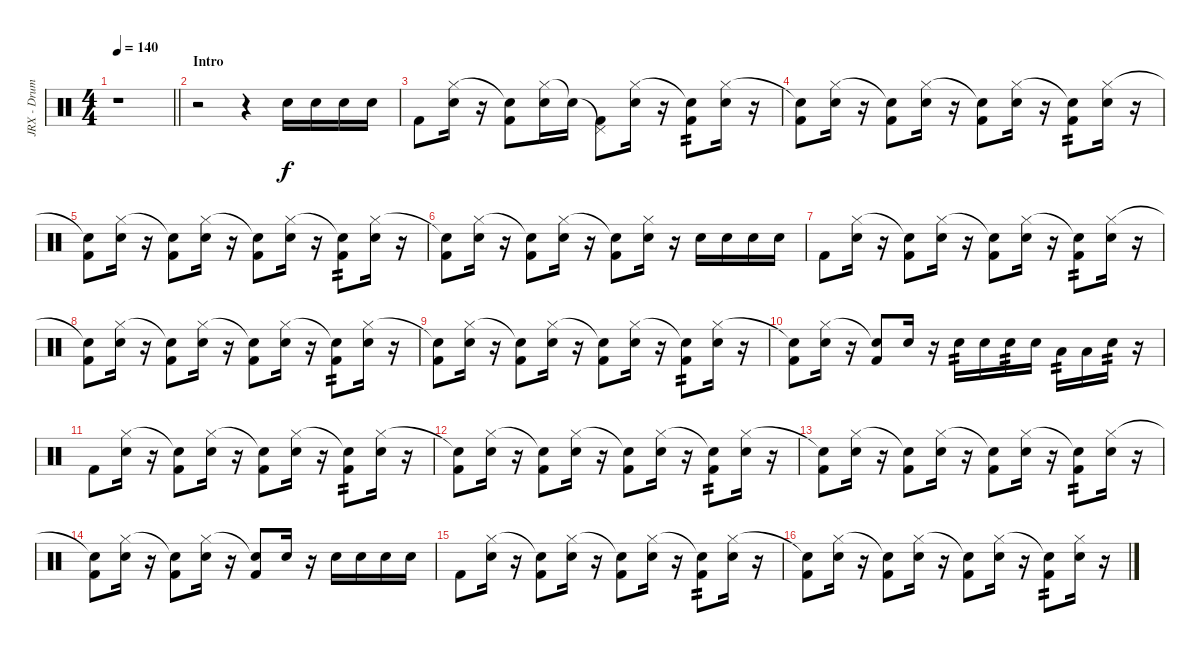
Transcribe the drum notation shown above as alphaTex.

\track ("JRX - Drum" "JRX - Drum") {instrument percussion}
\staff {score}
\articulation defaults
\ts (4 4)
\tempo 140
\clef neutral
\barLineRight lightlight
\ks c
r.1{dy f} |
\section ("" "Intro")
r.2 r.4 "Electric Snare (hit)".16 "Electric Snare (hit)".16 "Electric Snare (hit)".16 "Electric Snare (hit)".16 |
"Kick (hit) 2".8 ("Hi-Hat (closed)" "Electric Snare (hit)").16 r.16 ("Snare (hit)"{t} "Kick (hit) 2").8 ("Hi-Hat (closed)" "Electric Snare (hit)").16 "Snare (hit)"{t}.16 ("Pedal Hi-Hat (hit)"{t} "Kick (hit) 2").8 ("Hi-Hat (closed)" "Electric Snare (hit)").16 r.16 ("Snare (hit)"{t} "Kick (hit) 2").8{tp 2} ("Hi-Hat (closed)" "Electric Snare (hit)").16 r.16 |
("Snare (hit)"{t} "Kick (hit) 2").8 ("Hi-Hat (closed)" "Electric Snare (hit)").16 r.16 ("Snare (hit)"{t} "Kick (hit) 2").8 ("Hi-Hat (closed)" "Electric Snare (hit)").16 r.16 ("Snare (hit)"{t} "Kick (hit) 2").8 ("Hi-Hat (closed)" "Electric Snare (hit)").16 r.16 ("Snare (hit)"{t} "Kick (hit) 2").8{tp 2} ("Hi-Hat (closed)" "Electric Snare (hit)").16 r.16 |
("Snare (hit)"{t} "Kick (hit) 2").8 ("Hi-Hat (closed)" "Electric Snare (hit)").16 r.16 ("Snare (hit)"{t} "Kick (hit) 2").8 ("Hi-Hat (closed)" "Electric Snare (hit)").16 r.16 ("Snare (hit)"{t} "Kick (hit) 2").8 ("Hi-Hat (closed)" "Electric Snare (hit)").16 r.16 ("Snare (hit)"{t} "Kick (hit) 2").8{tp 2} ("Hi-Hat (closed)" "Electric Snare (hit)").16 r.16 |
("Snare (hit)"{t} "Kick (hit) 2").8 ("Hi-Hat (closed)" "Electric Snare (hit)").16 r.16 ("Snare (hit)"{t} "Kick (hit) 2").8 ("Hi-Hat (closed)" "Electric Snare (hit)").16 r.16 ("Snare (hit)"{t} "Kick (hit) 2").8 ("Hi-Hat (closed)" "Electric Snare (hit)").16 r.16 "Electric Snare (hit)".16 "Electric Snare (hit)".16 "Electric Snare (hit)".16 "Electric Snare (hit)".16 |
"Kick (hit) 2".8 ("Hi-Hat (closed)" "Electric Snare (hit)").16 r.16 ("Snare (hit)"{t} "Kick (hit) 2").8 ("Hi-Hat (closed)" "Electric Snare (hit)").16 r.16 ("Snare (hit)"{t} "Kick (hit) 2").8 ("Hi-Hat (closed)" "Electric Snare (hit)").16 r.16 ("Snare (hit)"{t} "Kick (hit) 2").8{tp 2} ("Hi-Hat (closed)" "Electric Snare (hit)").16 r.16 |
("Snare (hit)"{t} "Kick (hit) 2").8 ("Hi-Hat (closed)" "Electric Snare (hit)").16 r.16 ("Snare (hit)"{t} "Kick (hit) 2").8 ("Hi-Hat (closed)" "Electric Snare (hit)").16 r.16 ("Snare (hit)"{t} "Kick (hit) 2").8 ("Hi-Hat (closed)" "Electric Snare (hit)").16 r.16 ("Snare (hit)"{t} "Kick (hit) 2").8{tp 2} ("Hi-Hat (closed)" "Electric Snare (hit)").16 r.16 |
("Snare (hit)"{t} "Kick (hit) 2").8 ("Hi-Hat (closed)" "Electric Snare (hit)").16 r.16 ("Snare (hit)"{t} "Kick (hit) 2").8 ("Hi-Hat (closed)" "Electric Snare (hit)").16 r.16 ("Snare (hit)"{t} "Kick (hit) 2").8 ("Hi-Hat (closed)" "Electric Snare (hit)").16 r.16 ("Snare (hit)"{t} "Kick (hit) 2").8{tp 2} ("Hi-Hat (closed)" "Electric Snare (hit)").16 r.16 |
("Snare (hit)"{t} "Kick (hit) 2").8 ("Hi-Hat (closed)" "Electric Snare (hit)").16 r.16 ("Snare (hit)"{t} "Kick (hit) 2").8 "Electric Snare (hit)".16 r.16 "Electric Snare (hit)".16{tp 2} "Electric Snare (hit)".16 "Electric Snare (hit)".16{tp 2} "Electric Snare (hit)".16 "Low Floor Tom (hit)".16{tp 2} "Low Floor Tom (hit)".16 "Electric Snare (hit)".16{tp 2} r.16 |
"Kick (hit) 2".8 ("Hi-Hat (closed)" "Electric Snare (hit)").16 r.16 ("Snare (hit)"{t} "Kick (hit) 2").8 ("Hi-Hat (closed)" "Electric Snare (hit)").16 r.16 ("Snare (hit)"{t} "Kick (hit) 2").8 ("Hi-Hat (closed)" "Electric Snare (hit)").16 r.16 ("Snare (hit)"{t} "Kick (hit) 2").8{tp 2} ("Hi-Hat (closed)" "Electric Snare (hit)").16 r.16 |
("Snare (hit)"{t} "Kick (hit) 2").8 ("Hi-Hat (closed)" "Electric Snare (hit)").16 r.16 ("Snare (hit)"{t} "Kick (hit) 2").8 ("Hi-Hat (closed)" "Electric Snare (hit)").16 r.16 ("Snare (hit)"{t} "Kick (hit) 2").8 ("Hi-Hat (closed)" "Electric Snare (hit)").16 r.16 ("Snare (hit)"{t} "Kick (hit) 2").8{tp 2} ("Hi-Hat (closed)" "Electric Snare (hit)").16 r.16 |
("Snare (hit)"{t} "Kick (hit) 2").8 ("Hi-Hat (closed)" "Electric Snare (hit)").16 r.16 ("Snare (hit)"{t} "Kick (hit) 2").8 ("Hi-Hat (closed)" "Electric Snare (hit)").16 r.16 ("Snare (hit)"{t} "Kick (hit) 2").8 ("Hi-Hat (closed)" "Electric Snare (hit)").16 r.16 ("Snare (hit)"{t} "Kick (hit) 2").8{tp 2} ("Hi-Hat (closed)" "Electric Snare (hit)").16 r.16 |
("Snare (hit)"{t} "Kick (hit) 2").8 ("Hi-Hat (closed)" "Electric Snare (hit)").16 r.16 ("Snare (hit)"{t} "Kick (hit) 2").8 ("Hi-Hat (closed)" "Electric Snare (hit)").16 r.16 ("Snare (hit)"{t} "Kick (hit) 2").8 "Electric Snare (hit)".16 r.16 "Electric Snare (hit)".16 "Electric Snare (hit)".16 "Electric Snare (hit)".16 "Electric Snare (hit)".16 |
"Kick (hit) 2".8 ("Hi-Hat (closed)" "Electric Snare (hit)").16 r.16 ("Snare (hit)"{t} "Kick (hit) 2").8 ("Hi-Hat (closed)" "Electric Snare (hit)").16 r.16 ("Snare (hit)"{t} "Kick (hit) 2").8 ("Hi-Hat (closed)" "Electric Snare (hit)").16 r.16 ("Snare (hit)"{t} "Kick (hit) 2").8{tp 2} ("Hi-Hat (closed)" "Electric Snare (hit)").16 r.16 |
("Snare (hit)"{t} "Kick (hit) 2").8 ("Hi-Hat (closed)" "Electric Snare (hit)").16 r.16 ("Snare (hit)"{t} "Kick (hit) 2").8 ("Hi-Hat (closed)" "Electric Snare (hit)").16 r.16 ("Snare (hit)"{t} "Kick (hit) 2").8 ("Hi-Hat (closed)" "Electric Snare (hit)").16 r.16 ("Snare (hit)"{t} "Kick (hit) 2").8{tp 2} ("Hi-Hat (closed)" "Electric Snare (hit)").16 r.16
